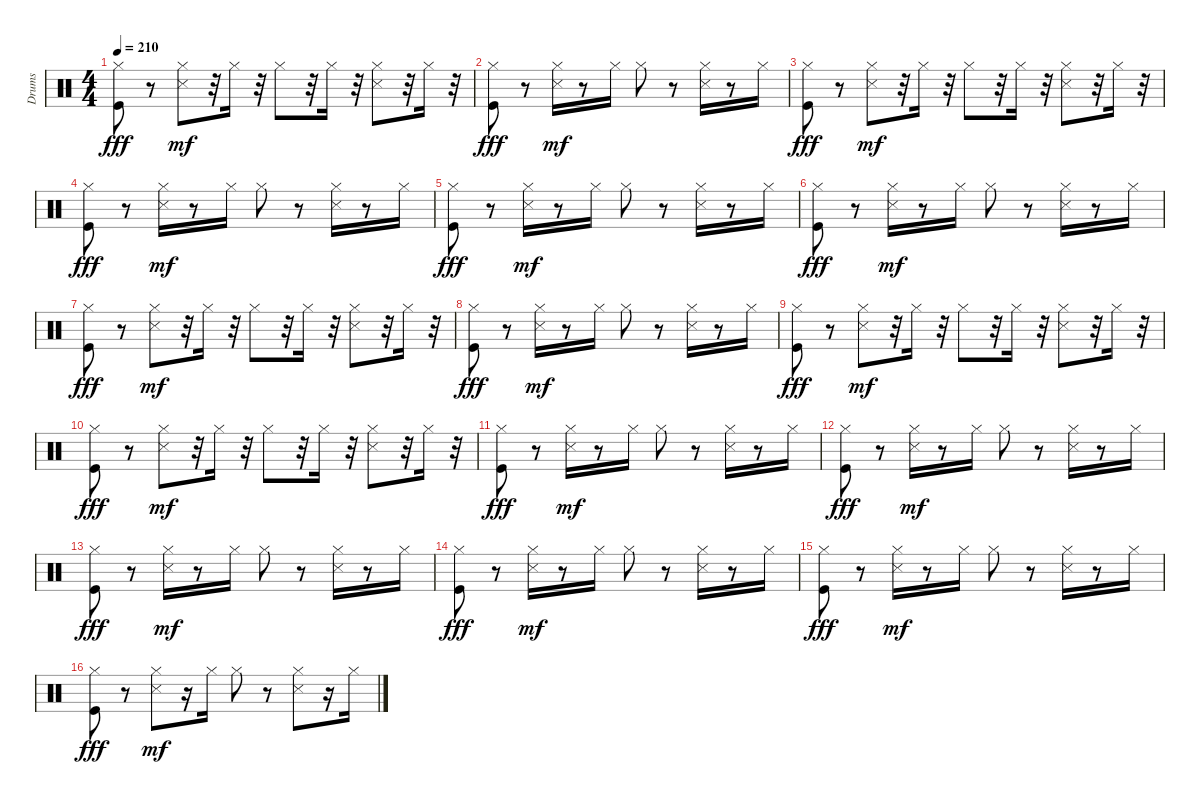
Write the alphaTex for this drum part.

\track ("Drums" "Drums") {instrument percussion}
\staff {score}
\articulation defaults
\ts (4 4)
\tempo 210
\clef neutral
\ks c
("Hi-Hat (closed)" "Kick (hit)").8{dy fff} r.8 ("Hi-Hat (closed)" "Snare (side stick) 3").8{dy mf} r.32 "Hi-Hat (closed)".16 r.32 "Hi-Hat (closed)".8 r.32 "Hi-Hat (closed)".16 r.32 ("Hi-Hat (closed)" "Snare (side stick) 3").8 r.32 "Hi-Hat (closed)".16 r.32 |
("Hi-Hat (closed)" "Kick (hit)").8{dy fff} r.8 ("Hi-Hat (closed)" "Snare (side stick) 3").16{dy mf} r.8 "Hi-Hat (closed)".16 "Hi-Hat (closed)".8 r.8 ("Hi-Hat (closed)" "Snare (side stick) 3").16 r.8 "Hi-Hat (closed)".16 |
("Hi-Hat (closed)" "Kick (hit)").8{dy fff} r.8 ("Hi-Hat (closed)" "Snare (side stick) 3").8{dy mf} r.32 "Hi-Hat (closed)".16 r.32 "Hi-Hat (closed)".8 r.32 "Hi-Hat (closed)".16 r.32 ("Hi-Hat (closed)" "Snare (side stick) 3").8 r.32 "Hi-Hat (closed)".16 r.32 |
("Hi-Hat (closed)" "Kick (hit)").8{dy fff} r.8 ("Hi-Hat (closed)" "Snare (side stick) 3").16{dy mf} r.8 "Hi-Hat (closed)".16 "Hi-Hat (closed)".8 r.8 ("Hi-Hat (closed)" "Snare (side stick) 3").16 r.8 "Hi-Hat (closed)".16 |
("Hi-Hat (closed)" "Kick (hit)").8{dy fff} r.8 ("Hi-Hat (closed)" "Snare (side stick) 3").16{dy mf} r.8 "Hi-Hat (closed)".16 "Hi-Hat (closed)".8 r.8 ("Hi-Hat (closed)" "Snare (side stick) 3").16 r.8 "Hi-Hat (closed)".16 |
("Hi-Hat (closed)" "Kick (hit)").8{dy fff} r.8 ("Hi-Hat (closed)" "Snare (side stick) 3").16{dy mf} r.8 "Hi-Hat (closed)".16 "Hi-Hat (closed)".8 r.8 ("Hi-Hat (closed)" "Snare (side stick) 3").16 r.8 "Hi-Hat (closed)".16 |
("Hi-Hat (closed)" "Kick (hit)").8{dy fff} r.8 ("Hi-Hat (closed)" "Snare (side stick) 3").8{dy mf} r.32 "Hi-Hat (closed)".16 r.32 "Hi-Hat (closed)".8 r.32 "Hi-Hat (closed)".16 r.32 ("Hi-Hat (closed)" "Snare (side stick) 3").8 r.32 "Hi-Hat (closed)".16 r.32 |
("Hi-Hat (closed)" "Kick (hit)").8{dy fff} r.8 ("Hi-Hat (closed)" "Snare (side stick) 3").16{dy mf} r.8 "Hi-Hat (closed)".16 "Hi-Hat (closed)".8 r.8 ("Hi-Hat (closed)" "Snare (side stick) 3").16 r.8 "Hi-Hat (closed)".16 |
("Hi-Hat (closed)" "Kick (hit)").8{dy fff} r.8 ("Hi-Hat (closed)" "Snare (side stick) 3").8{dy mf} r.32 "Hi-Hat (closed)".16 r.32 "Hi-Hat (closed)".8 r.32 "Hi-Hat (closed)".16 r.32 ("Hi-Hat (closed)" "Snare (side stick) 3").8 r.32 "Hi-Hat (closed)".16 r.32 |
("Hi-Hat (closed)" "Kick (hit)").8{dy fff} r.8 ("Hi-Hat (closed)" "Snare (side stick) 3").8{dy mf} r.32 "Hi-Hat (closed)".16 r.32 "Hi-Hat (closed)".8 r.32 "Hi-Hat (closed)".16 r.32 ("Hi-Hat (closed)" "Snare (side stick) 3").8 r.32 "Hi-Hat (closed)".16 r.32 |
("Hi-Hat (closed)" "Kick (hit)").8{dy fff} r.8 ("Hi-Hat (closed)" "Snare (side stick) 3").16{dy mf} r.8 "Hi-Hat (closed)".16 "Hi-Hat (closed)".8 r.8 ("Hi-Hat (closed)" "Snare (side stick) 3").16 r.8 "Hi-Hat (closed)".16 |
("Hi-Hat (closed)" "Kick (hit)").8{dy fff} r.8 ("Hi-Hat (closed)" "Snare (side stick) 3").16{dy mf} r.8 "Hi-Hat (closed)".16 "Hi-Hat (closed)".8 r.8 ("Hi-Hat (closed)" "Snare (side stick) 3").16 r.8 "Hi-Hat (closed)".16 |
("Hi-Hat (closed)" "Kick (hit)").8{dy fff} r.8 ("Hi-Hat (closed)" "Snare (side stick) 3").16{dy mf} r.8 "Hi-Hat (closed)".16 "Hi-Hat (closed)".8 r.8 ("Hi-Hat (closed)" "Snare (side stick) 3").16 r.8 "Hi-Hat (closed)".16 |
("Hi-Hat (closed)" "Kick (hit)").8{dy fff} r.8 ("Hi-Hat (closed)" "Snare (side stick) 3").16{dy mf} r.8 "Hi-Hat (closed)".16 "Hi-Hat (closed)".8 r.8 ("Hi-Hat (closed)" "Snare (side stick) 3").16 r.8 "Hi-Hat (closed)".16 |
("Hi-Hat (closed)" "Kick (hit)").8{dy fff} r.8 ("Hi-Hat (closed)" "Snare (side stick) 3").16{dy mf} r.8 "Hi-Hat (closed)".16 "Hi-Hat (closed)".8 r.8 ("Hi-Hat (closed)" "Snare (side stick) 3").16 r.8 "Hi-Hat (closed)".16 |
("Hi-Hat (closed)" "Kick (hit)").8{dy fff} r.8 ("Hi-Hat (closed)" "Snare (side stick) 3").8{dy mf} r.16 "Hi-Hat (closed)".16 "Hi-Hat (closed)".8 r.8 ("Hi-Hat (closed)" "Snare (side stick) 3").8 r.16 "Hi-Hat (closed)".16
